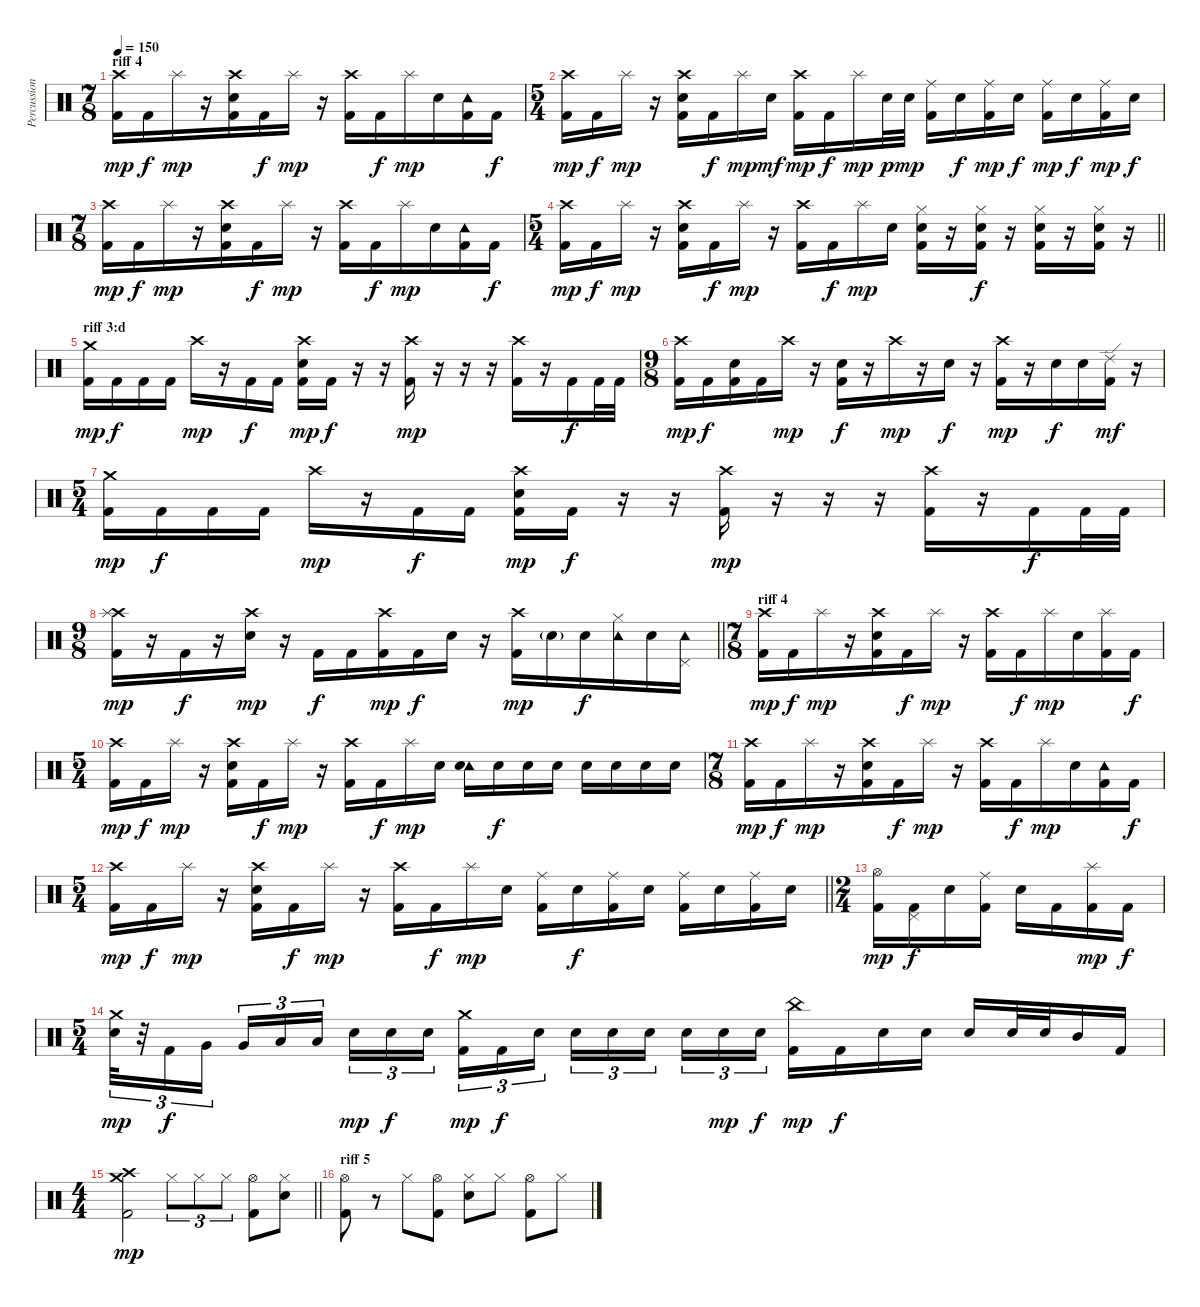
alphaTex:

\track ("Percussion" "Percussion") {instrument percussion}
\staff {score}
\articulation defaults
\ts (7 8)
\section ("" "riff 4")
\tempo 150
\clef neutral
\ks c
("Crash high (hit)" "Kick (hit) 2").16{dy mp} "Kick (hit) 2".16{dy f} "Splash (hit)".16{dy mp} r.16 ("Crash high (hit)" "Electric Snare (hit)" "Kick (hit) 2").16 "Kick (hit) 2".16{dy f} "Splash (hit)".16{dy mp} r.16 ("Crash high (hit)" "Kick (hit) 2").16 "Kick (hit) 2".16{dy f} "Splash (hit)".16{dy mp} "Electric Snare (hit)".16 ("Tambourine (hit)" "Kick (hit) 2").16 "Kick (hit) 2".16{dy f} |
\ts (5 4)
("Crash high (hit)" "Kick (hit) 2").16{dy mp} "Kick (hit) 2".16{dy f} "Splash (hit)".16{dy mp} r.16 ("Crash high (hit)" "Electric Snare (hit)" "Kick (hit) 2").16 "Kick (hit) 2".16{dy f} "Splash (hit)".16{dy mp} "Electric Snare (hit)".16{dy mf} ("Crash high (hit)" "Kick (hit) 2").16{dy mp} "Kick (hit) 2".16{dy f} "Splash (hit)".16{dy mp} "Electric Snare (hit)".32{dy p} "Electric Snare (hit)".32{dy mp} ("Ride (middle)" "Kick (hit) 2").16 "Electric Snare (hit)".16{dy f} ("Ride (middle)" "Kick (hit) 2").16{dy mp} "Electric Snare (hit)".16{dy f} ("Ride (middle)" "Kick (hit) 2").16{dy mp} "Electric Snare (hit)".16{dy f} ("Ride (middle)" "Kick (hit) 2").16{dy mp} "Electric Snare (hit)".16{dy f} |
\ts (7 8)
("Crash high (hit)" "Kick (hit) 2").16{dy mp} "Kick (hit) 2".16{dy f} "Splash (hit)".16{dy mp} r.16 ("Crash high (hit)" "Electric Snare (hit)" "Kick (hit) 2").16 "Kick (hit) 2".16{dy f} "Splash (hit)".16{dy mp} r.16 ("Crash high (hit)" "Kick (hit) 2").16 "Kick (hit) 2".16{dy f} "Splash (hit)".16{dy mp} "Electric Snare (hit)".16 ("Tambourine (hit)" "Kick (hit) 2").16 "Kick (hit) 2".16{dy f} |
\ts (5 4)
\barLineRight lightlight
("Crash high (hit)" "Kick (hit) 2").16{dy mp} "Kick (hit) 2".16{dy f} "Splash (hit)".16{dy mp} r.16 ("Crash high (hit)" "Electric Snare (hit)" "Kick (hit) 2").16 "Kick (hit) 2".16{dy f} "Splash (hit)".16{dy mp} r.16 ("Crash high (hit)" "Kick (hit) 2").16 "Kick (hit) 2".16{dy f} "Splash (hit)".16{dy mp} "Electric Snare (hit)".16 ("Hi-Hat (closed)" "Electric Snare (hit)" "Kick (hit) 2").16 r.16 ("Hi-Hat (closed)" "Electric Snare (hit)" "Kick (hit) 2").16{dy f} r.16 ("Hi-Hat (closed)" "Electric Snare (hit)" "Kick (hit) 2").16 r.16 ("Hi-Hat (closed)" "Electric Snare (hit)" "Kick (hit) 2").16 r.16 |
\section ("" "riff 3:d")
("Crash medium (hit)" "Kick (hit) 2").16{dy mp} "Kick (hit) 2".16{dy f} "Kick (hit) 2".16 "Kick (hit) 2".16 "Crash high (hit)".16{dy mp} r.16 "Kick (hit) 2".16{dy f} "Kick (hit) 2".16 ("Crash high (hit)" "Electric Snare (hit)" "Kick (hit) 2").16{dy mp} "Kick (hit) 2".16{dy f} r.16 r.16 ("Crash high (hit)" "Kick (hit) 2").16{dy mp} r.16 r.16 r.16 ("Crash high (hit)" "Kick (hit) 2").16 r.16 "Kick (hit) 2".16{dy f} "Kick (hit) 2".32 "Kick (hit) 2".32 |
\ts (9 8)
("Crash high (hit)" "Kick (hit) 2").16{dy mp} "Kick (hit) 2".16{dy f} ("Electric Snare (hit)" "Kick (hit) 2").16 "Kick (hit) 2".16 "Crash high (hit)".16{dy mp} r.16 ("Electric Snare (hit)" "Kick (hit) 2").16{dy f} r.16 "Crash high (hit)".16{dy mp} r.16 "Electric Snare (hit)".16{dy f} r.16 ("Crash high (hit)" "Kick (hit) 2").16{dy mp} r.16 "Electric Snare (hit)".16{dy f} "Electric Snare (hit)".16 ("Ride (edge) 2" "Kick (hit) 2").16{dy mf} r.16 |
\ts (5 4)
("Crash medium (hit)" "Kick (hit) 2").16{dy mp} "Kick (hit) 2".16{dy f} "Kick (hit) 2".16 "Kick (hit) 2".16 "Crash high (hit)".16{dy mp} r.16 "Kick (hit) 2".16{dy f} "Kick (hit) 2".16 ("Crash high (hit)" "Electric Snare (hit)" "Kick (hit) 2").16{dy mp} "Kick (hit) 2".16{dy f} r.16 r.16 ("Crash high (hit)" "Kick (hit) 2").16{dy mp} r.16 r.16 r.16 ("Crash high (hit)" "Kick (hit) 2").16 r.16 "Kick (hit) 2".16{dy f} "Kick (hit) 2".32 "Kick (hit) 2".32 |
\ts (9 8)
\barLineRight lightlight
("Crash high (hit)" "Splash (hit)" "Kick (hit) 2").16{dy mp} r.16 "Kick (hit) 2".16{dy f} r.16 ("Crash high (hit)" "Electric Snare (hit)").16{dy mp} r.16 "Kick (hit) 2".16{dy f} "Kick (hit) 2".16 ("Crash high (hit)" "Kick (hit) 2").16{dy mp} "Kick (hit) 2".16{dy f} "Electric Snare (hit)".16 r.16 ("Crash high (hit)" "Kick (hit) 2").16{dy mp} "Electric Snare (hit)"{g}.16 "Electric Snare (hit)".16{dy f} ("Tambourine (hit)" "Hi-Hat (closed)").16 "Electric Snare (hit)".16 ("Tambourine (hit)" "Pedal Hi-Hat (hit)").16 |
\ts (7 8)
\section ("" "riff 4")
("Crash high (hit)" "Kick (hit) 2").16{dy mp} "Kick (hit) 2".16{dy f} "Splash (hit)".16{dy mp} r.16 ("Crash high (hit)" "Electric Snare (hit)" "Kick (hit) 2").16 "Kick (hit) 2".16{dy f} "Splash (hit)".16{dy mp} r.16 ("Crash high (hit)" "Kick (hit) 2").16 "Kick (hit) 2".16{dy f} "Splash (hit)".16{dy mp} "Electric Snare (hit)".16 ("Splash (hit)" "Kick (hit) 2").16 "Kick (hit) 2".16{dy f} |
\ts (5 4)
("Crash high (hit)" "Kick (hit) 2").16{dy mp} "Kick (hit) 2".16{dy f} "Splash (hit)".16{dy mp} r.16 ("Crash high (hit)" "Electric Snare (hit)" "Kick (hit) 2").16 "Kick (hit) 2".16{dy f} "Splash (hit)".16{dy mp} r.16 ("Crash high (hit)" "Kick (hit) 2").16 "Kick (hit) 2".16{dy f} "Splash (hit)".16{dy mp} "Electric Snare (hit)".16 ("Tambourine (hit)" "Electric Snare (hit)").16 "Electric Snare (hit)".16{dy f} "Electric Snare (hit)".16 "Electric Snare (hit)".16 "Electric Snare (hit)".16 "Electric Snare (hit)".16 "Electric Snare (hit)".16 "Electric Snare (hit)".16 |
\ts (7 8)
("Crash high (hit)" "Kick (hit) 2").16{dy mp} "Kick (hit) 2".16{dy f} "Splash (hit)".16{dy mp} r.16 ("Crash high (hit)" "Electric Snare (hit)" "Kick (hit) 2").16 "Kick (hit) 2".16{dy f} "Splash (hit)".16{dy mp} r.16 ("Crash high (hit)" "Kick (hit) 2").16 "Kick (hit) 2".16{dy f} "Splash (hit)".16{dy mp} "Electric Snare (hit)".16 ("Tambourine (hit)" "Kick (hit) 2").16 "Kick (hit) 2".16{dy f} |
\ts (5 4)
\barLineRight lightlight
("Crash high (hit)" "Kick (hit) 2").16{dy mp} "Kick (hit) 2".16{dy f} "Splash (hit)".16{dy mp} r.16 ("Crash high (hit)" "Electric Snare (hit)" "Kick (hit) 2").16 "Kick (hit) 2".16{dy f} "Splash (hit)".16{dy mp} r.16 ("Crash high (hit)" "Kick (hit) 2").16 "Kick (hit) 2".16{dy f} "Splash (hit)".16{dy mp} "Electric Snare (hit)".16 ("Ride (middle)" "Kick (hit) 2").16 "Electric Snare (hit)".16{dy f} ("Ride (middle)" "Kick (hit) 2").16 "Electric Snare (hit)".16 ("Ride (middle)" "Kick (hit) 2").16 "Electric Snare (hit)".16 ("Ride (middle)" "Kick (hit) 2").16 "Electric Snare (hit)".16 |
\ts (2 4)
("Hi-Hat (open)" "Kick (hit) 2").16{dy mp} ("Pedal Hi-Hat (hit)" "Kick (hit) 2").16{dy f} "Electric Snare (hit)".16 ("Ride (middle)" "Kick (hit) 2").16 "Electric Snare (hit)".16 "Kick (hit) 2".16 ("Splash (hit)" "Kick (hit) 2").16{dy mp} "Kick (hit) 2".16{dy f} |
\ts (5 4)
("Crash medium (hit)" "Electric Snare (hit)").32{tu (3 2) dy mp} r.32{tu (3 2)} "Kick (hit) 2".16{tu (3 2) dy f} "Very Low Tom (hit)".16{tu (3 2) beam splitsecondary} "Very Low Tom (hit)".16{tu (3 2)} "Low Floor Tom (hit)".16{tu (3 2)} "Low Floor Tom (hit)".16{tu (3 2)} "Electric Snare (hit)".16{tu (3 2) dy mp} "Electric Snare (hit)".16{tu (3 2) dy f} "Electric Snare (hit)".16{tu (3 2) beam splitsecondary} ("Crash medium (hit)" "Kick (hit) 2").16{tu (3 2) dy mp} "Kick (hit) 2".16{tu (3 2) dy f} "Electric Snare (hit)".16{tu (3 2)} "Electric Snare (hit)".16{tu (3 2)} "Electric Snare (hit)".16{tu (3 2)} "Electric Snare (hit)".16{tu (3 2) beam splitsecondary} "Electric Snare (hit)".16{tu (3 2)} "Electric Snare (hit)".16{tu (3 2) dy mp} "Electric Snare (hit)".16{tu (3 2) dy f} ("China (hit)" "Kick (hit) 2").16{dy mp} "Kick (hit) 2".16{dy f} "Electric Snare (hit)".16 "Electric Snare (hit)".16 "Electric Snare (hit)".16 "Electric Snare (hit)".32 "Electric Snare (hit)".32 "Mid Tom (hit)".16 "Kick (hit) 2".16 |
\ts (4 4)
\barLineRight lightlight
("Crash medium (hit)" "Crash high (hit)" "Kick (hit) 2").2{dy mp} "Hi-Hat (closed)".8{tu (3 2)} "Hi-Hat (closed)".8{tu (3 2)} "Hi-Hat (closed)".8{tu (3 2)} ("Hi-Hat (open)" "Kick (hit) 2").8 ("Hi-Hat (closed)" "Electric Snare (hit)").8 |
\section ("" "riff 5")
("Hi-Hat (open)" "Kick (hit) 2").8 r.8 "Hi-Hat (closed)".8 ("Hi-Hat (open)" "Kick (hit) 2").8 ("Hi-Hat (closed)" "Electric Snare (hit)").8 "Hi-Hat (closed)".8 ("Hi-Hat (open)" "Kick (hit) 2").8 "Hi-Hat (closed)".8
